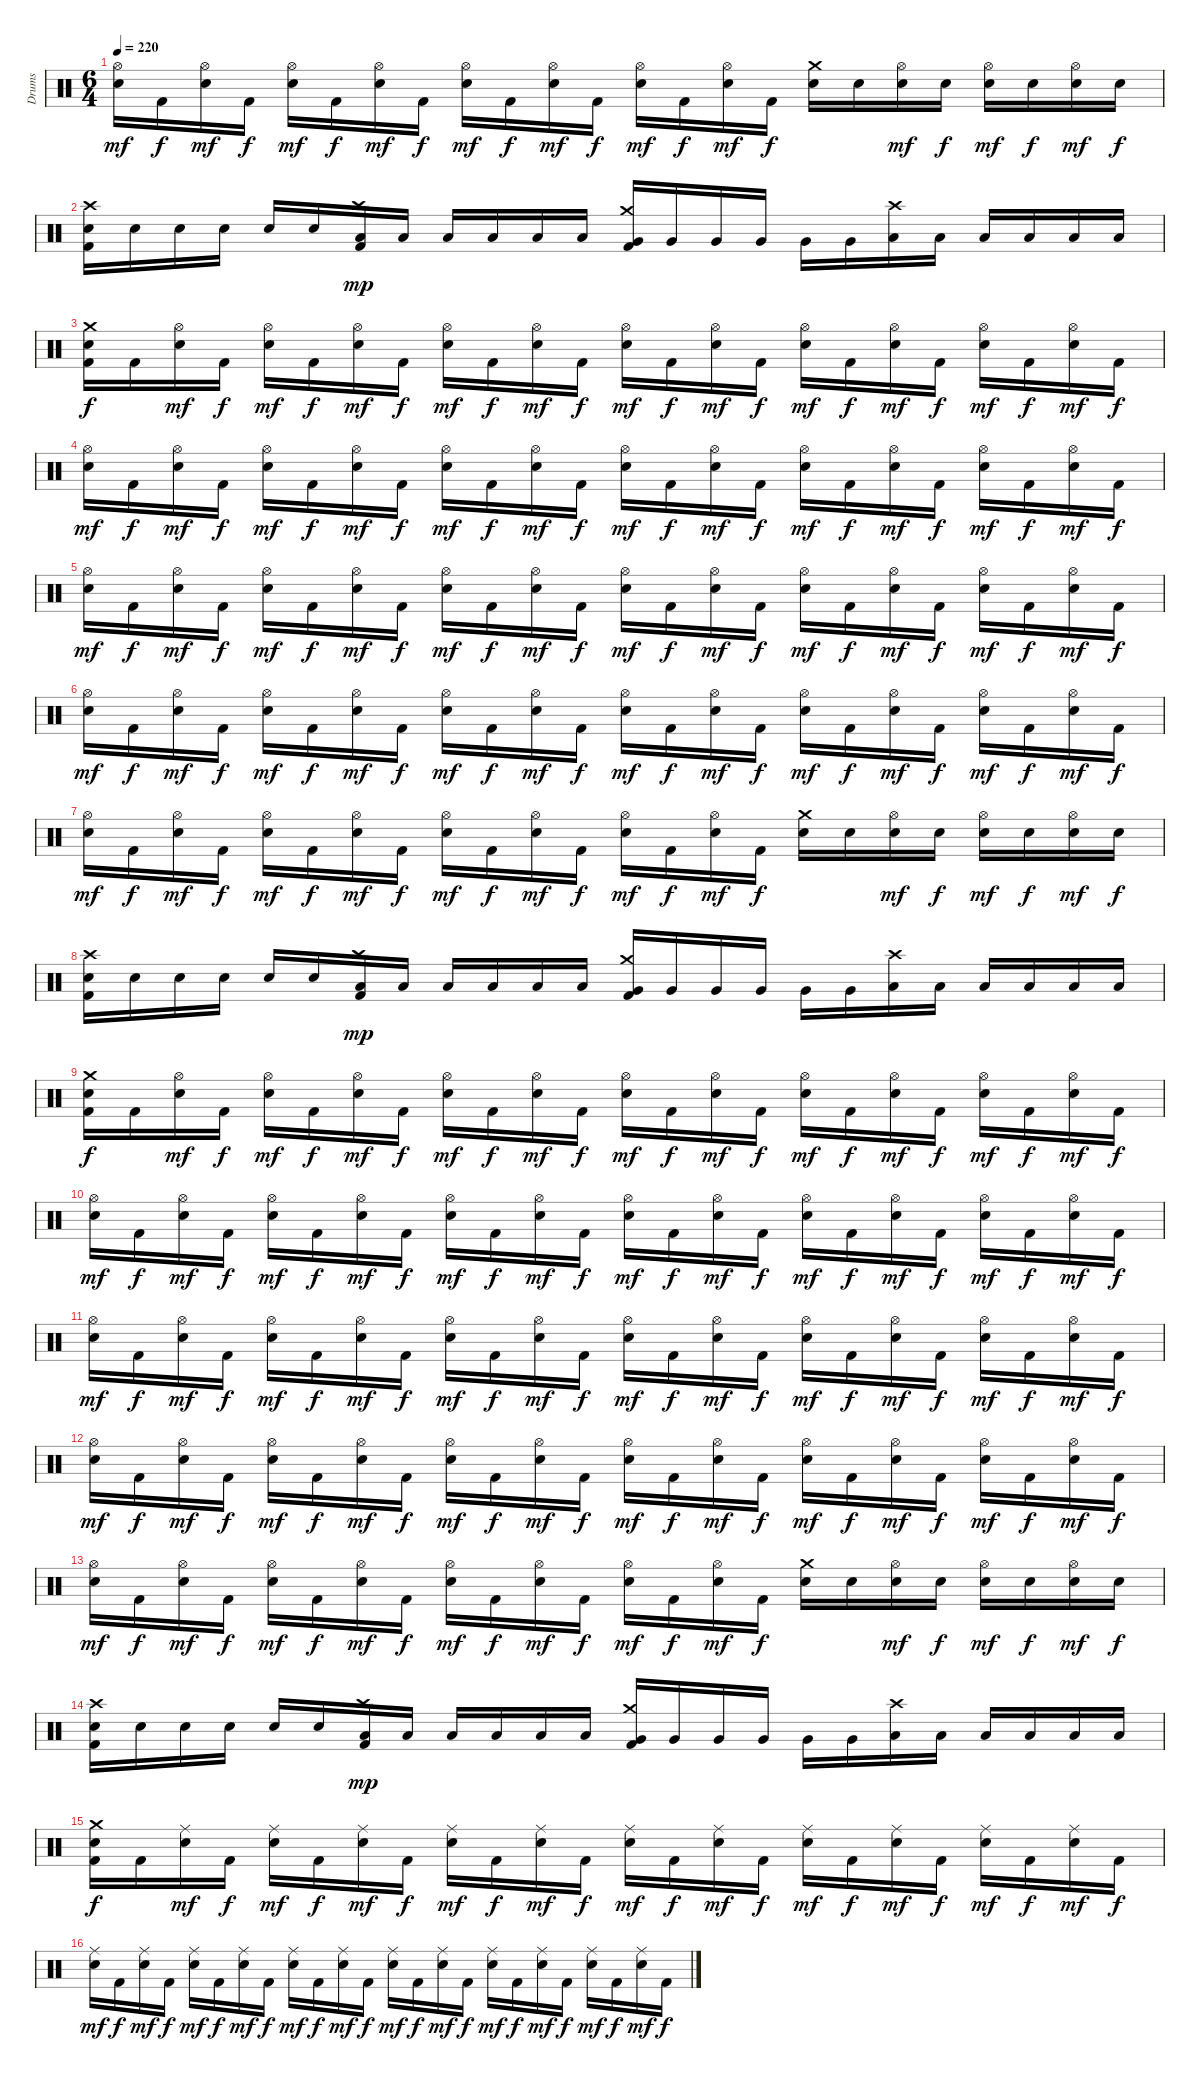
\track ("Drums" "Drums") {instrument percussion}
\staff {score}
\articulation defaults
\ts (6 4)
\tempo 220
\clef neutral
\ks c
("Hi-Hat (open)" "Electric Snare (hit)").16{dy mf} "Kick (hit) 2".16{dy f} ("Hi-Hat (open)" "Electric Snare (hit)").16{dy mf} "Kick (hit) 2".16{dy f} ("Hi-Hat (open)" "Electric Snare (hit)").16{dy mf} "Kick (hit) 2".16{dy f} ("Hi-Hat (open)" "Electric Snare (hit)").16{dy mf} "Kick (hit) 2".16{dy f} ("Hi-Hat (open)" "Electric Snare (hit)").16{dy mf} "Kick (hit) 2".16{dy f} ("Hi-Hat (open)" "Electric Snare (hit)").16{dy mf} "Kick (hit) 2".16{dy f} ("Hi-Hat (open)" "Electric Snare (hit)").16{dy mf} "Kick (hit) 2".16{dy f} ("Hi-Hat (open)" "Electric Snare (hit)").16{dy mf} "Kick (hit) 2".16{dy f} ("Crash medium (hit)" "Electric Snare (hit)").16 "Electric Snare (hit)".16 ("Hi-Hat (open)" "Electric Snare (hit)").16{dy mf} "Electric Snare (hit)".16{dy f} ("Hi-Hat (open)" "Electric Snare (hit)").16{dy mf} "Electric Snare (hit)".16{dy f} ("Hi-Hat (open)" "Electric Snare (hit)").16{dy mf} "Electric Snare (hit)".16{dy f} |
("Crash high (hit)" "Electric Snare (hit)" "Kick (hit) 2").16 "Electric Snare (hit)".16 "Electric Snare (hit)".16 "Electric Snare (hit)".16 "Electric Snare (hit)".16 "Electric Snare (hit)".16 ("Crash high (hit)" "Low Tom (hit)" "Kick (hit) 2").16{dy mp} "Low Tom (hit)".16 "Low Tom (hit)".16 "Low Tom (hit)".16 "Low Tom (hit)".16 "Low Tom (hit)".16 ("Crash medium (hit)" "Very Low Tom (hit)" "Kick (hit) 2").16 "Very Low Tom (hit)".16 "Very Low Tom (hit)".16 "Very Low Tom (hit)".16 "Very Low Tom (hit)".16 "Very Low Tom (hit)".16 ("Crash high (hit)" "Low Floor Tom (hit)").16 "Low Floor Tom (hit)".16 "Low Floor Tom (hit)".16 "Low Floor Tom (hit)".16 "Low Floor Tom (hit)".16 "Low Floor Tom (hit)".16 |
("Crash medium (hit)" "Electric Snare (hit)" "Kick (hit) 2").16{dy f} "Kick (hit) 2".16 ("Hi-Hat (open)" "Electric Snare (hit)").16{dy mf} "Kick (hit) 2".16{dy f} ("Hi-Hat (open)" "Electric Snare (hit)").16{dy mf} "Kick (hit) 2".16{dy f} ("Hi-Hat (open)" "Electric Snare (hit)").16{dy mf} "Kick (hit) 2".16{dy f} ("Hi-Hat (open)" "Electric Snare (hit)").16{dy mf} "Kick (hit) 2".16{dy f} ("Hi-Hat (open)" "Electric Snare (hit)").16{dy mf} "Kick (hit) 2".16{dy f} ("Hi-Hat (open)" "Electric Snare (hit)").16{dy mf} "Kick (hit) 2".16{dy f} ("Hi-Hat (open)" "Electric Snare (hit)").16{dy mf} "Kick (hit) 2".16{dy f} ("Hi-Hat (open)" "Electric Snare (hit)").16{dy mf} "Kick (hit) 2".16{dy f} ("Hi-Hat (open)" "Electric Snare (hit)").16{dy mf} "Kick (hit) 2".16{dy f} ("Hi-Hat (open)" "Electric Snare (hit)").16{dy mf} "Kick (hit) 2".16{dy f} ("Hi-Hat (open)" "Electric Snare (hit)").16{dy mf} "Kick (hit) 2".16{dy f} |
("Hi-Hat (open)" "Electric Snare (hit)").16{dy mf} "Kick (hit) 2".16{dy f} ("Hi-Hat (open)" "Electric Snare (hit)").16{dy mf} "Kick (hit) 2".16{dy f} ("Hi-Hat (open)" "Electric Snare (hit)").16{dy mf} "Kick (hit) 2".16{dy f} ("Hi-Hat (open)" "Electric Snare (hit)").16{dy mf} "Kick (hit) 2".16{dy f} ("Hi-Hat (open)" "Electric Snare (hit)").16{dy mf} "Kick (hit) 2".16{dy f} ("Hi-Hat (open)" "Electric Snare (hit)").16{dy mf} "Kick (hit) 2".16{dy f} ("Hi-Hat (open)" "Electric Snare (hit)").16{dy mf} "Kick (hit) 2".16{dy f} ("Hi-Hat (open)" "Electric Snare (hit)").16{dy mf} "Kick (hit) 2".16{dy f} ("Hi-Hat (open)" "Electric Snare (hit)").16{dy mf} "Kick (hit) 2".16{dy f} ("Hi-Hat (open)" "Electric Snare (hit)").16{dy mf} "Kick (hit) 2".16{dy f} ("Hi-Hat (open)" "Electric Snare (hit)").16{dy mf} "Kick (hit) 2".16{dy f} ("Hi-Hat (open)" "Electric Snare (hit)").16{dy mf} "Kick (hit) 2".16{dy f} |
("Hi-Hat (open)" "Electric Snare (hit)").16{dy mf} "Kick (hit) 2".16{dy f} ("Hi-Hat (open)" "Electric Snare (hit)").16{dy mf} "Kick (hit) 2".16{dy f} ("Hi-Hat (open)" "Electric Snare (hit)").16{dy mf} "Kick (hit) 2".16{dy f} ("Hi-Hat (open)" "Electric Snare (hit)").16{dy mf} "Kick (hit) 2".16{dy f} ("Hi-Hat (open)" "Electric Snare (hit)").16{dy mf} "Kick (hit) 2".16{dy f} ("Hi-Hat (open)" "Electric Snare (hit)").16{dy mf} "Kick (hit) 2".16{dy f} ("Hi-Hat (open)" "Electric Snare (hit)").16{dy mf} "Kick (hit) 2".16{dy f} ("Hi-Hat (open)" "Electric Snare (hit)").16{dy mf} "Kick (hit) 2".16{dy f} ("Hi-Hat (open)" "Electric Snare (hit)").16{dy mf} "Kick (hit) 2".16{dy f} ("Hi-Hat (open)" "Electric Snare (hit)").16{dy mf} "Kick (hit) 2".16{dy f} ("Hi-Hat (open)" "Electric Snare (hit)").16{dy mf} "Kick (hit) 2".16{dy f} ("Hi-Hat (open)" "Electric Snare (hit)").16{dy mf} "Kick (hit) 2".16{dy f} |
("Hi-Hat (open)" "Electric Snare (hit)").16{dy mf} "Kick (hit) 2".16{dy f} ("Hi-Hat (open)" "Electric Snare (hit)").16{dy mf} "Kick (hit) 2".16{dy f} ("Hi-Hat (open)" "Electric Snare (hit)").16{dy mf} "Kick (hit) 2".16{dy f} ("Hi-Hat (open)" "Electric Snare (hit)").16{dy mf} "Kick (hit) 2".16{dy f} ("Hi-Hat (open)" "Electric Snare (hit)").16{dy mf} "Kick (hit) 2".16{dy f} ("Hi-Hat (open)" "Electric Snare (hit)").16{dy mf} "Kick (hit) 2".16{dy f} ("Hi-Hat (open)" "Electric Snare (hit)").16{dy mf} "Kick (hit) 2".16{dy f} ("Hi-Hat (open)" "Electric Snare (hit)").16{dy mf} "Kick (hit) 2".16{dy f} ("Hi-Hat (open)" "Electric Snare (hit)").16{dy mf} "Kick (hit) 2".16{dy f} ("Hi-Hat (open)" "Electric Snare (hit)").16{dy mf} "Kick (hit) 2".16{dy f} ("Hi-Hat (open)" "Electric Snare (hit)").16{dy mf} "Kick (hit) 2".16{dy f} ("Hi-Hat (open)" "Electric Snare (hit)").16{dy mf} "Kick (hit) 2".16{dy f} |
("Hi-Hat (open)" "Electric Snare (hit)").16{dy mf} "Kick (hit) 2".16{dy f} ("Hi-Hat (open)" "Electric Snare (hit)").16{dy mf} "Kick (hit) 2".16{dy f} ("Hi-Hat (open)" "Electric Snare (hit)").16{dy mf} "Kick (hit) 2".16{dy f} ("Hi-Hat (open)" "Electric Snare (hit)").16{dy mf} "Kick (hit) 2".16{dy f} ("Hi-Hat (open)" "Electric Snare (hit)").16{dy mf} "Kick (hit) 2".16{dy f} ("Hi-Hat (open)" "Electric Snare (hit)").16{dy mf} "Kick (hit) 2".16{dy f} ("Hi-Hat (open)" "Electric Snare (hit)").16{dy mf} "Kick (hit) 2".16{dy f} ("Hi-Hat (open)" "Electric Snare (hit)").16{dy mf} "Kick (hit) 2".16{dy f} ("Crash medium (hit)" "Electric Snare (hit)").16 "Electric Snare (hit)".16 ("Hi-Hat (open)" "Electric Snare (hit)").16{dy mf} "Electric Snare (hit)".16{dy f} ("Hi-Hat (open)" "Electric Snare (hit)").16{dy mf} "Electric Snare (hit)".16{dy f} ("Hi-Hat (open)" "Electric Snare (hit)").16{dy mf} "Electric Snare (hit)".16{dy f} |
("Crash high (hit)" "Electric Snare (hit)" "Kick (hit) 2").16 "Electric Snare (hit)".16 "Electric Snare (hit)".16 "Electric Snare (hit)".16 "Electric Snare (hit)".16 "Electric Snare (hit)".16 ("Crash high (hit)" "Low Tom (hit)" "Kick (hit) 2").16{dy mp} "Low Tom (hit)".16 "Low Tom (hit)".16 "Low Tom (hit)".16 "Low Tom (hit)".16 "Low Tom (hit)".16 ("Crash medium (hit)" "Very Low Tom (hit)" "Kick (hit) 2").16 "Very Low Tom (hit)".16 "Very Low Tom (hit)".16 "Very Low Tom (hit)".16 "Very Low Tom (hit)".16 "Very Low Tom (hit)".16 ("Crash high (hit)" "Low Floor Tom (hit)").16 "Low Floor Tom (hit)".16 "Low Floor Tom (hit)".16 "Low Floor Tom (hit)".16 "Low Floor Tom (hit)".16 "Low Floor Tom (hit)".16 |
("Crash medium (hit)" "Electric Snare (hit)" "Kick (hit) 2").16{dy f} "Kick (hit) 2".16 ("Hi-Hat (open)" "Electric Snare (hit)").16{dy mf} "Kick (hit) 2".16{dy f} ("Hi-Hat (open)" "Electric Snare (hit)").16{dy mf} "Kick (hit) 2".16{dy f} ("Hi-Hat (open)" "Electric Snare (hit)").16{dy mf} "Kick (hit) 2".16{dy f} ("Hi-Hat (open)" "Electric Snare (hit)").16{dy mf} "Kick (hit) 2".16{dy f} ("Hi-Hat (open)" "Electric Snare (hit)").16{dy mf} "Kick (hit) 2".16{dy f} ("Hi-Hat (open)" "Electric Snare (hit)").16{dy mf} "Kick (hit) 2".16{dy f} ("Hi-Hat (open)" "Electric Snare (hit)").16{dy mf} "Kick (hit) 2".16{dy f} ("Hi-Hat (open)" "Electric Snare (hit)").16{dy mf} "Kick (hit) 2".16{dy f} ("Hi-Hat (open)" "Electric Snare (hit)").16{dy mf} "Kick (hit) 2".16{dy f} ("Hi-Hat (open)" "Electric Snare (hit)").16{dy mf} "Kick (hit) 2".16{dy f} ("Hi-Hat (open)" "Electric Snare (hit)").16{dy mf} "Kick (hit) 2".16{dy f} |
("Hi-Hat (open)" "Electric Snare (hit)").16{dy mf} "Kick (hit) 2".16{dy f} ("Hi-Hat (open)" "Electric Snare (hit)").16{dy mf} "Kick (hit) 2".16{dy f} ("Hi-Hat (open)" "Electric Snare (hit)").16{dy mf} "Kick (hit) 2".16{dy f} ("Hi-Hat (open)" "Electric Snare (hit)").16{dy mf} "Kick (hit) 2".16{dy f} ("Hi-Hat (open)" "Electric Snare (hit)").16{dy mf} "Kick (hit) 2".16{dy f} ("Hi-Hat (open)" "Electric Snare (hit)").16{dy mf} "Kick (hit) 2".16{dy f} ("Hi-Hat (open)" "Electric Snare (hit)").16{dy mf} "Kick (hit) 2".16{dy f} ("Hi-Hat (open)" "Electric Snare (hit)").16{dy mf} "Kick (hit) 2".16{dy f} ("Hi-Hat (open)" "Electric Snare (hit)").16{dy mf} "Kick (hit) 2".16{dy f} ("Hi-Hat (open)" "Electric Snare (hit)").16{dy mf} "Kick (hit) 2".16{dy f} ("Hi-Hat (open)" "Electric Snare (hit)").16{dy mf} "Kick (hit) 2".16{dy f} ("Hi-Hat (open)" "Electric Snare (hit)").16{dy mf} "Kick (hit) 2".16{dy f} |
("Hi-Hat (open)" "Electric Snare (hit)").16{dy mf} "Kick (hit) 2".16{dy f} ("Hi-Hat (open)" "Electric Snare (hit)").16{dy mf} "Kick (hit) 2".16{dy f} ("Hi-Hat (open)" "Electric Snare (hit)").16{dy mf} "Kick (hit) 2".16{dy f} ("Hi-Hat (open)" "Electric Snare (hit)").16{dy mf} "Kick (hit) 2".16{dy f} ("Hi-Hat (open)" "Electric Snare (hit)").16{dy mf} "Kick (hit) 2".16{dy f} ("Hi-Hat (open)" "Electric Snare (hit)").16{dy mf} "Kick (hit) 2".16{dy f} ("Hi-Hat (open)" "Electric Snare (hit)").16{dy mf} "Kick (hit) 2".16{dy f} ("Hi-Hat (open)" "Electric Snare (hit)").16{dy mf} "Kick (hit) 2".16{dy f} ("Hi-Hat (open)" "Electric Snare (hit)").16{dy mf} "Kick (hit) 2".16{dy f} ("Hi-Hat (open)" "Electric Snare (hit)").16{dy mf} "Kick (hit) 2".16{dy f} ("Hi-Hat (open)" "Electric Snare (hit)").16{dy mf} "Kick (hit) 2".16{dy f} ("Hi-Hat (open)" "Electric Snare (hit)").16{dy mf} "Kick (hit) 2".16{dy f} |
("Hi-Hat (open)" "Electric Snare (hit)").16{dy mf} "Kick (hit) 2".16{dy f} ("Hi-Hat (open)" "Electric Snare (hit)").16{dy mf} "Kick (hit) 2".16{dy f} ("Hi-Hat (open)" "Electric Snare (hit)").16{dy mf} "Kick (hit) 2".16{dy f} ("Hi-Hat (open)" "Electric Snare (hit)").16{dy mf} "Kick (hit) 2".16{dy f} ("Hi-Hat (open)" "Electric Snare (hit)").16{dy mf} "Kick (hit) 2".16{dy f} ("Hi-Hat (open)" "Electric Snare (hit)").16{dy mf} "Kick (hit) 2".16{dy f} ("Hi-Hat (open)" "Electric Snare (hit)").16{dy mf} "Kick (hit) 2".16{dy f} ("Hi-Hat (open)" "Electric Snare (hit)").16{dy mf} "Kick (hit) 2".16{dy f} ("Hi-Hat (open)" "Electric Snare (hit)").16{dy mf} "Kick (hit) 2".16{dy f} ("Hi-Hat (open)" "Electric Snare (hit)").16{dy mf} "Kick (hit) 2".16{dy f} ("Hi-Hat (open)" "Electric Snare (hit)").16{dy mf} "Kick (hit) 2".16{dy f} ("Hi-Hat (open)" "Electric Snare (hit)").16{dy mf} "Kick (hit) 2".16{dy f} |
("Hi-Hat (open)" "Electric Snare (hit)").16{dy mf} "Kick (hit) 2".16{dy f} ("Hi-Hat (open)" "Electric Snare (hit)").16{dy mf} "Kick (hit) 2".16{dy f} ("Hi-Hat (open)" "Electric Snare (hit)").16{dy mf} "Kick (hit) 2".16{dy f} ("Hi-Hat (open)" "Electric Snare (hit)").16{dy mf} "Kick (hit) 2".16{dy f} ("Hi-Hat (open)" "Electric Snare (hit)").16{dy mf} "Kick (hit) 2".16{dy f} ("Hi-Hat (open)" "Electric Snare (hit)").16{dy mf} "Kick (hit) 2".16{dy f} ("Hi-Hat (open)" "Electric Snare (hit)").16{dy mf} "Kick (hit) 2".16{dy f} ("Hi-Hat (open)" "Electric Snare (hit)").16{dy mf} "Kick (hit) 2".16{dy f} ("Crash medium (hit)" "Electric Snare (hit)").16 "Electric Snare (hit)".16 ("Hi-Hat (open)" "Electric Snare (hit)").16{dy mf} "Electric Snare (hit)".16{dy f} ("Hi-Hat (open)" "Electric Snare (hit)").16{dy mf} "Electric Snare (hit)".16{dy f} ("Hi-Hat (open)" "Electric Snare (hit)").16{dy mf} "Electric Snare (hit)".16{dy f} |
("Crash high (hit)" "Electric Snare (hit)" "Kick (hit) 2").16 "Electric Snare (hit)".16 "Electric Snare (hit)".16 "Electric Snare (hit)".16 "Electric Snare (hit)".16 "Electric Snare (hit)".16 ("Crash high (hit)" "Low Tom (hit)" "Kick (hit) 2").16{dy mp} "Low Tom (hit)".16 "Low Tom (hit)".16 "Low Tom (hit)".16 "Low Tom (hit)".16 "Low Tom (hit)".16 ("Crash medium (hit)" "Very Low Tom (hit)" "Kick (hit) 2").16 "Very Low Tom (hit)".16 "Very Low Tom (hit)".16 "Very Low Tom (hit)".16 "Very Low Tom (hit)".16 "Very Low Tom (hit)".16 ("Crash high (hit)" "Low Floor Tom (hit)").16 "Low Floor Tom (hit)".16 "Low Floor Tom (hit)".16 "Low Floor Tom (hit)".16 "Low Floor Tom (hit)".16 "Low Floor Tom (hit)".16 |
("Crash medium (hit)" "Electric Snare (hit)" "Kick (hit) 2").16{dy f} "Kick (hit) 2".16 ("Ride (middle)" "Electric Snare (hit)").16{dy mf} "Kick (hit) 2".16{dy f} ("Ride (middle)" "Electric Snare (hit)").16{dy mf} "Kick (hit) 2".16{dy f} ("Ride (middle)" "Electric Snare (hit)").16{dy mf} "Kick (hit) 2".16{dy f} ("Ride (middle)" "Electric Snare (hit)").16{dy mf} "Kick (hit) 2".16{dy f} ("Ride (middle)" "Electric Snare (hit)").16{dy mf} "Kick (hit) 2".16{dy f} ("Ride (middle)" "Electric Snare (hit)").16{dy mf} "Kick (hit) 2".16{dy f} ("Ride (middle)" "Electric Snare (hit)").16{dy mf} "Kick (hit) 2".16{dy f} ("Ride (middle)" "Electric Snare (hit)").16{dy mf} "Kick (hit) 2".16{dy f} ("Ride (middle)" "Electric Snare (hit)").16{dy mf} "Kick (hit) 2".16{dy f} ("Ride (middle)" "Electric Snare (hit)").16{dy mf} "Kick (hit) 2".16{dy f} ("Ride (middle)" "Electric Snare (hit)").16{dy mf} "Kick (hit) 2".16{dy f} |
("Ride (middle)" "Electric Snare (hit)").16{dy mf} "Kick (hit) 2".16{dy f} ("Ride (middle)" "Electric Snare (hit)").16{dy mf} "Kick (hit) 2".16{dy f} ("Ride (middle)" "Electric Snare (hit)").16{dy mf} "Kick (hit) 2".16{dy f} ("Ride (middle)" "Electric Snare (hit)").16{dy mf} "Kick (hit) 2".16{dy f} ("Ride (middle)" "Electric Snare (hit)").16{dy mf} "Kick (hit) 2".16{dy f} ("Ride (middle)" "Electric Snare (hit)").16{dy mf} "Kick (hit) 2".16{dy f} ("Ride (middle)" "Electric Snare (hit)").16{dy mf} "Kick (hit) 2".16{dy f} ("Ride (middle)" "Electric Snare (hit)").16{dy mf} "Kick (hit) 2".16{dy f} ("Ride (middle)" "Electric Snare (hit)").16{dy mf} "Kick (hit) 2".16{dy f} ("Ride (middle)" "Electric Snare (hit)").16{dy mf} "Kick (hit) 2".16{dy f} ("Ride (middle)" "Electric Snare (hit)").16{dy mf} "Kick (hit) 2".16{dy f} ("Ride (middle)" "Electric Snare (hit)").16{dy mf} "Kick (hit) 2".16{dy f}
